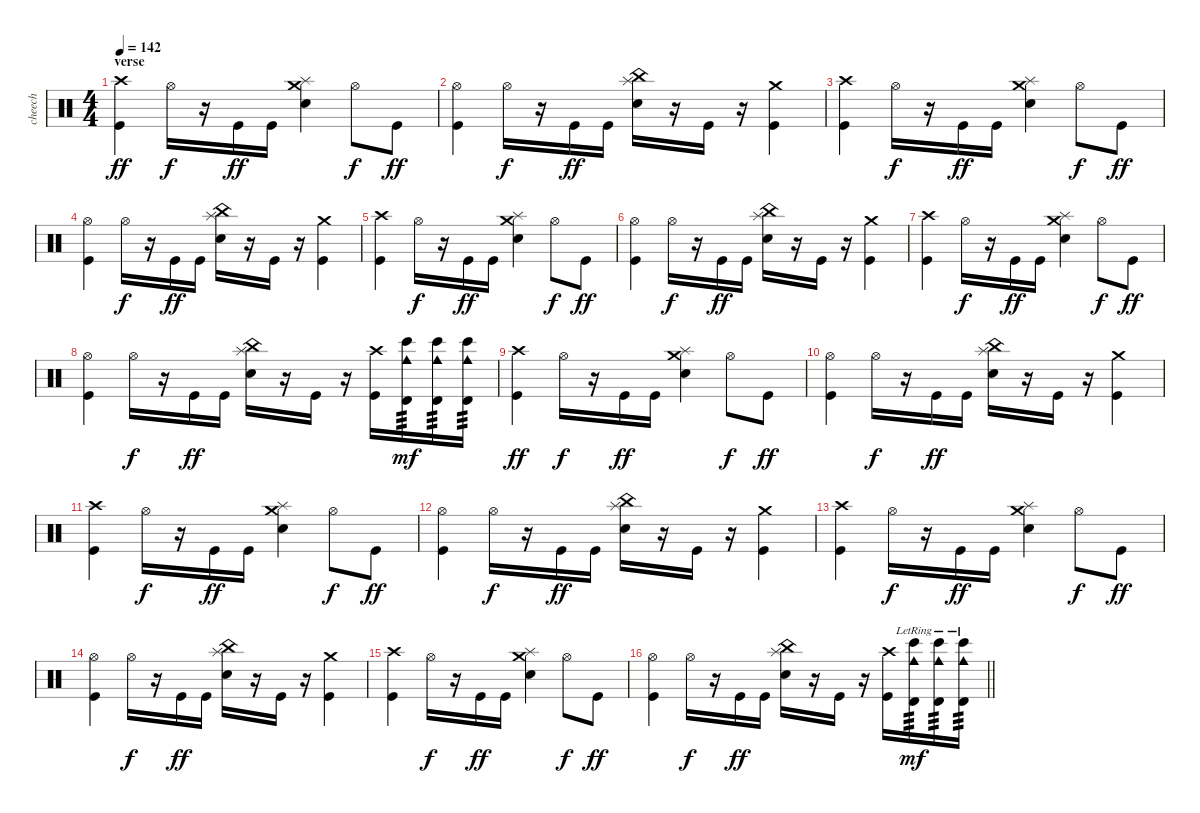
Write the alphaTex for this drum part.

\track ("cheech" "cheech") {instrument percussion}
\staff {score}
\articulation defaults
\ts (4 4)
\section ("" "verse")
\tempo 142
\clef neutral
\ks c
("Crash high (hit)" "Kick (hit)").4{dy ff} "Hi-Hat (open)".16{dy f} r.16 "Kick (hit)".16{dy ff} "Kick (hit)".16 ("Crash medium (hit)" "Splash (hit)" "Electric Snare (hit)").4 "Hi-Hat (open)".8{dy f} "Kick (hit)".8{dy ff} |
("Hi-Hat (open)" "Kick (hit)").4 "Hi-Hat (open)".16{dy f} r.16 "Kick (hit)".16{dy ff} "Kick (hit)".16 ("China (hit)" "Splash (hit)" "Electric Snare (hit)").16 r.16 "Kick (hit)".16 r.16 ("Crash medium (hit)" "Kick (hit)").4 |
("Crash high (hit)" "Kick (hit)").4 "Hi-Hat (open)".16{dy f} r.16 "Kick (hit)".16{dy ff} "Kick (hit)".16 ("Crash medium (hit)" "Splash (hit)" "Electric Snare (hit)").4 "Hi-Hat (open)".8{dy f} "Kick (hit)".8{dy ff} |
("Hi-Hat (open)" "Kick (hit)").4 "Hi-Hat (open)".16{dy f} r.16 "Kick (hit)".16{dy ff} "Kick (hit)".16 ("China (hit)" "Splash (hit)" "Electric Snare (hit)").16 r.16 "Kick (hit)".16 r.16 ("Crash medium (hit)" "Kick (hit)").4 |
("Crash high (hit)" "Kick (hit)").4 "Hi-Hat (open)".16{dy f} r.16 "Kick (hit)".16{dy ff} "Kick (hit)".16 ("Crash medium (hit)" "Splash (hit)" "Electric Snare (hit)").4 "Hi-Hat (open)".8{dy f} "Kick (hit)".8{dy ff} |
("Hi-Hat (open)" "Kick (hit)").4 "Hi-Hat (open)".16{dy f} r.16 "Kick (hit)".16{dy ff} "Kick (hit)".16 ("China (hit)" "Splash (hit)" "Electric Snare (hit)").16 r.16 "Kick (hit)".16 r.16 ("Crash medium (hit)" "Kick (hit)").4 |
("Crash high (hit)" "Kick (hit)").4 "Hi-Hat (open)".16{dy f} r.16 "Kick (hit)".16{dy ff} "Kick (hit)".16 ("Crash medium (hit)" "Splash (hit)" "Electric Snare (hit)").4 "Hi-Hat (open)".8{dy f} "Kick (hit)".8{dy ff} |
("Hi-Hat (open)" "Kick (hit)").4 "Hi-Hat (open)".16{dy f} r.16 "Kick (hit)".16{dy ff} "Kick (hit)".16 ("China (hit)" "Splash (hit)" "Electric Snare (hit)").16 r.16 "Kick (hit)".16 r.16 ("Crash high (hit)" "Kick (hit)").16 ("Cowbell medium (hit)" "Timbale high (hit)" "Bongo High (hit)").16{tp 3 dy mf} ("Cowbell medium (hit)" "Timbale high (hit)" "Bongo High (hit)").16{tp 3} ("Cowbell medium (hit)" "Timbale high (hit)" "Bongo High (hit)").16{tp 3} |
("Crash high (hit)" "Kick (hit)").4{dy ff} "Hi-Hat (open)".16{dy f} r.16 "Kick (hit)".16{dy ff} "Kick (hit)".16 ("Crash medium (hit)" "Splash (hit)" "Electric Snare (hit)").4 "Hi-Hat (open)".8{dy f} "Kick (hit)".8{dy ff} |
("Hi-Hat (open)" "Kick (hit)").4 "Hi-Hat (open)".16{dy f} r.16 "Kick (hit)".16{dy ff} "Kick (hit)".16 ("China (hit)" "Splash (hit)" "Electric Snare (hit)").16 r.16 "Kick (hit)".16 r.16 ("Crash medium (hit)" "Kick (hit)").4 |
("Crash high (hit)" "Kick (hit)").4 "Hi-Hat (open)".16{dy f} r.16 "Kick (hit)".16{dy ff} "Kick (hit)".16 ("Crash medium (hit)" "Splash (hit)" "Electric Snare (hit)").4 "Hi-Hat (open)".8{dy f} "Kick (hit)".8{dy ff} |
("Hi-Hat (open)" "Kick (hit)").4 "Hi-Hat (open)".16{dy f} r.16 "Kick (hit)".16{dy ff} "Kick (hit)".16 ("China (hit)" "Splash (hit)" "Electric Snare (hit)").16 r.16 "Kick (hit)".16 r.16 ("Crash medium (hit)" "Kick (hit)").4 |
("Crash high (hit)" "Kick (hit)").4 "Hi-Hat (open)".16{dy f} r.16 "Kick (hit)".16{dy ff} "Kick (hit)".16 ("Crash medium (hit)" "Splash (hit)" "Electric Snare (hit)").4 "Hi-Hat (open)".8{dy f} "Kick (hit)".8{dy ff} |
("Hi-Hat (open)" "Kick (hit)").4 "Hi-Hat (open)".16{dy f} r.16 "Kick (hit)".16{dy ff} "Kick (hit)".16 ("China (hit)" "Splash (hit)" "Electric Snare (hit)").16 r.16 "Kick (hit)".16 r.16 ("Crash medium (hit)" "Kick (hit)").4 |
("Crash high (hit)" "Kick (hit)").4 "Hi-Hat (open)".16{dy f} r.16 "Kick (hit)".16{dy ff} "Kick (hit)".16 ("Crash medium (hit)" "Splash (hit)" "Electric Snare (hit)").4 "Hi-Hat (open)".8{dy f} "Kick (hit)".8{dy ff} |
\barLineRight lightlight
("Hi-Hat (open)" "Kick (hit)").4 "Hi-Hat (open)".16{dy f} r.16 "Kick (hit)".16{dy ff} "Kick (hit)".16 ("China (hit)" "Splash (hit)" "Electric Snare (hit)").16 r.16 "Kick (hit)".16 r.16 ("Crash high (hit)" "Kick (hit)").16 ("Cowbell medium (hit)"{lr} "Timbale high (hit)"{lr} "Bongo High (hit)").16{tp 3 dy mf} ("Cowbell medium (hit)"{lr} "Timbale high (hit)" "Bongo High (hit)").16{tp 3} ("Cowbell medium (hit)"{lr} "Timbale high (hit)" "Bongo High (hit)").16{tp 3}
